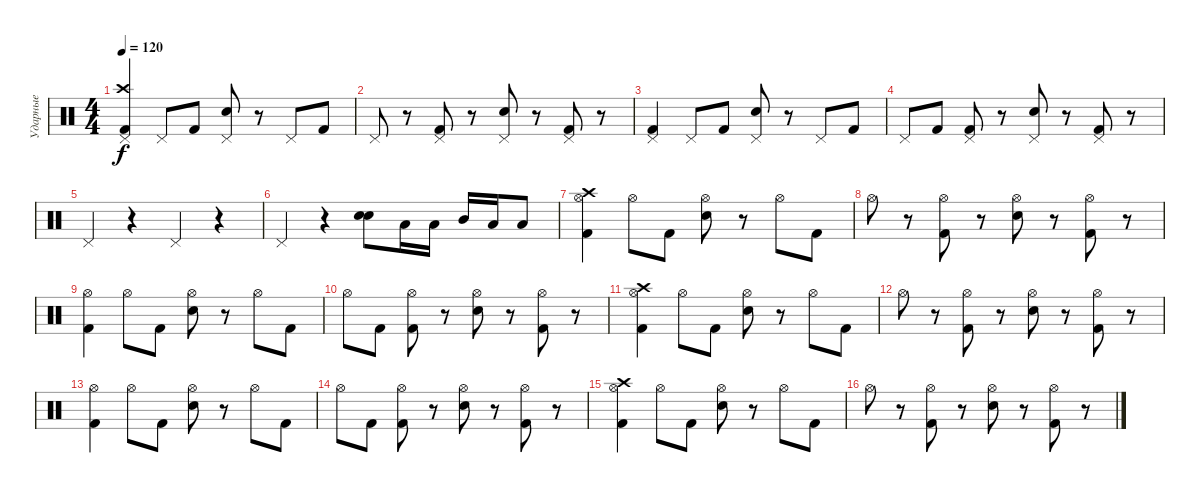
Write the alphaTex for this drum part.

\track ("Ударные" "Ударные") {instrument percussion}
\staff {score}
\articulation defaults
\ts (4 4)
\tempo 120
\clef neutral
\ks c
("Pedal Hi-Hat (hit)" "Crash high (hit)" "Kick (hit) 2").4{dy f} "Pedal Hi-Hat (hit)".8 "Kick (hit) 2".8 ("Pedal Hi-Hat (hit)" "Electric Snare (hit)").8 r.8 "Pedal Hi-Hat (hit)".8 "Kick (hit) 2".8 |
"Pedal Hi-Hat (hit)".8 r.8 ("Pedal Hi-Hat (hit)" "Kick (hit) 2").8 r.8 ("Pedal Hi-Hat (hit)" "Electric Snare (hit)").8 r.8 ("Pedal Hi-Hat (hit)" "Kick (hit) 2").8 r.8 |
("Pedal Hi-Hat (hit)" "Kick (hit) 2").4 "Pedal Hi-Hat (hit)".8 "Kick (hit) 2".8 ("Pedal Hi-Hat (hit)" "Electric Snare (hit)").8 r.8 "Pedal Hi-Hat (hit)".8 "Kick (hit) 2".8 |
"Pedal Hi-Hat (hit)".8 "Kick (hit) 2".8 ("Pedal Hi-Hat (hit)" "Kick (hit) 2").8 r.8 ("Pedal Hi-Hat (hit)" "Electric Snare (hit)").8 r.8 ("Pedal Hi-Hat (hit)" "Kick (hit) 2").8 r.8 |
"Pedal Hi-Hat (hit)".4 r.4 "Pedal Hi-Hat (hit)".4 r.4 |
"Pedal Hi-Hat (hit)".4 r.4 ("Electric Snare (hit)" "Electric Snare (hit)").8 "Low Tom (hit)".16 "Low Tom (hit)".16 "Mid Tom (hit)".16 "Low Tom (hit)".16 "Low Tom (hit)".8 |
("Hi-Hat (open)" "Crash high (hit)" "Kick (hit) 2").4 "Hi-Hat (open)".8 "Kick (hit) 2".8 ("Hi-Hat (open)" "Electric Snare (hit)").8 r.8 "Hi-Hat (open)".8 "Kick (hit) 2".8 |
"Hi-Hat (open)".8 r.8 ("Hi-Hat (open)" "Kick (hit) 2").8 r.8 ("Hi-Hat (open)" "Electric Snare (hit)").8 r.8 ("Hi-Hat (open)" "Kick (hit) 2").8 r.8 |
("Hi-Hat (open)" "Kick (hit) 2").4 "Hi-Hat (open)".8 "Kick (hit) 2".8 ("Hi-Hat (open)" "Electric Snare (hit)").8 r.8 "Hi-Hat (open)".8 "Kick (hit) 2".8 |
"Hi-Hat (open)".8 "Kick (hit) 2".8 ("Hi-Hat (open)" "Kick (hit) 2").8 r.8 ("Hi-Hat (open)" "Electric Snare (hit)").8 r.8 ("Hi-Hat (open)" "Kick (hit) 2").8 r.8 |
("Hi-Hat (open)" "Crash high (hit)" "Kick (hit) 2").4 "Hi-Hat (open)".8 "Kick (hit) 2".8 ("Hi-Hat (open)" "Electric Snare (hit)").8 r.8 "Hi-Hat (open)".8 "Kick (hit) 2".8 |
"Hi-Hat (open)".8 r.8 ("Hi-Hat (open)" "Kick (hit) 2").8 r.8 ("Hi-Hat (open)" "Electric Snare (hit)").8 r.8 ("Hi-Hat (open)" "Kick (hit) 2").8 r.8 |
("Hi-Hat (open)" "Kick (hit) 2").4 "Hi-Hat (open)".8 "Kick (hit) 2".8 ("Hi-Hat (open)" "Electric Snare (hit)").8 r.8 "Hi-Hat (open)".8 "Kick (hit) 2".8 |
"Hi-Hat (open)".8 "Kick (hit) 2".8 ("Hi-Hat (open)" "Kick (hit) 2").8 r.8 ("Hi-Hat (open)" "Electric Snare (hit)").8 r.8 ("Hi-Hat (open)" "Kick (hit) 2").8 r.8 |
("Hi-Hat (open)" "Crash high (hit)" "Kick (hit) 2").4 "Hi-Hat (open)".8 "Kick (hit) 2".8 ("Hi-Hat (open)" "Electric Snare (hit)").8 r.8 "Hi-Hat (open)".8 "Kick (hit) 2".8 |
"Hi-Hat (open)".8 r.8 ("Hi-Hat (open)" "Kick (hit) 2").8 r.8 ("Hi-Hat (open)" "Electric Snare (hit)").8 r.8 ("Hi-Hat (open)" "Kick (hit) 2").8 r.8
